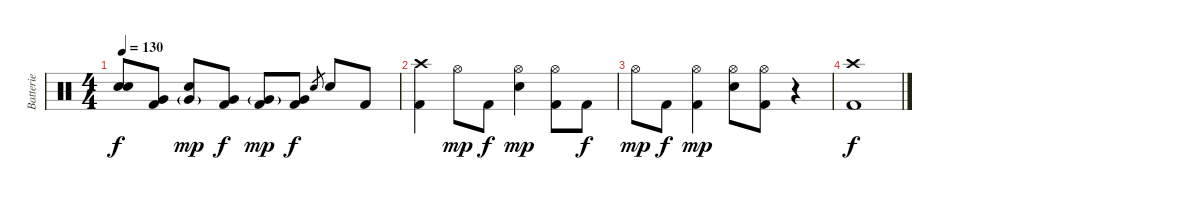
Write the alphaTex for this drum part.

\track ("Batterie" "Batterie") {instrument percussion}
\staff {score}
\articulation defaults
\ts (4 4)
\tempo 130
\clef neutral
\ks c
("Snare (hit)"{t} "Snare (hit)"{t}).8{dy f} ("Very Low Tom (hit)" "Kick (hit) 2").8 ("Electric Snare (hit)" "Very Low Tom (hit)"{g}).8{dy mp} ("Very Low Tom (hit)" "Kick (hit) 2").8{dy f} ("Very Low Tom (hit)"{g} "Kick (hit) 2").8{dy mp} ("Very Low Tom (hit)" "Kick (hit) 2").8{dy f} "Electric Snare (hit)".8{gr} "Electric Snare (hit)".8 "Kick (hit) 2".8 |
("Crash high (hit)" "Kick (hit) 2").4 "Hi-Hat (open)".8{dy mp} "Kick (hit) 2".8{dy f} ("Hi-Hat (open)" "Electric Snare (hit)").4{dy mp} ("Hi-Hat (open)" "Kick (hit) 2").8 "Kick (hit) 2".8{dy f} |
"Hi-Hat (open)".8{dy mp} "Kick (hit) 2".8{dy f} ("Hi-Hat (open)" "Kick (hit) 2").4{dy mp} ("Hi-Hat (open)" "Electric Snare (hit)").8 ("Hi-Hat (open)" "Kick (hit) 2").8 r.4 |
("Crash high (hit)" "Kick (hit) 2").1{dy f}
